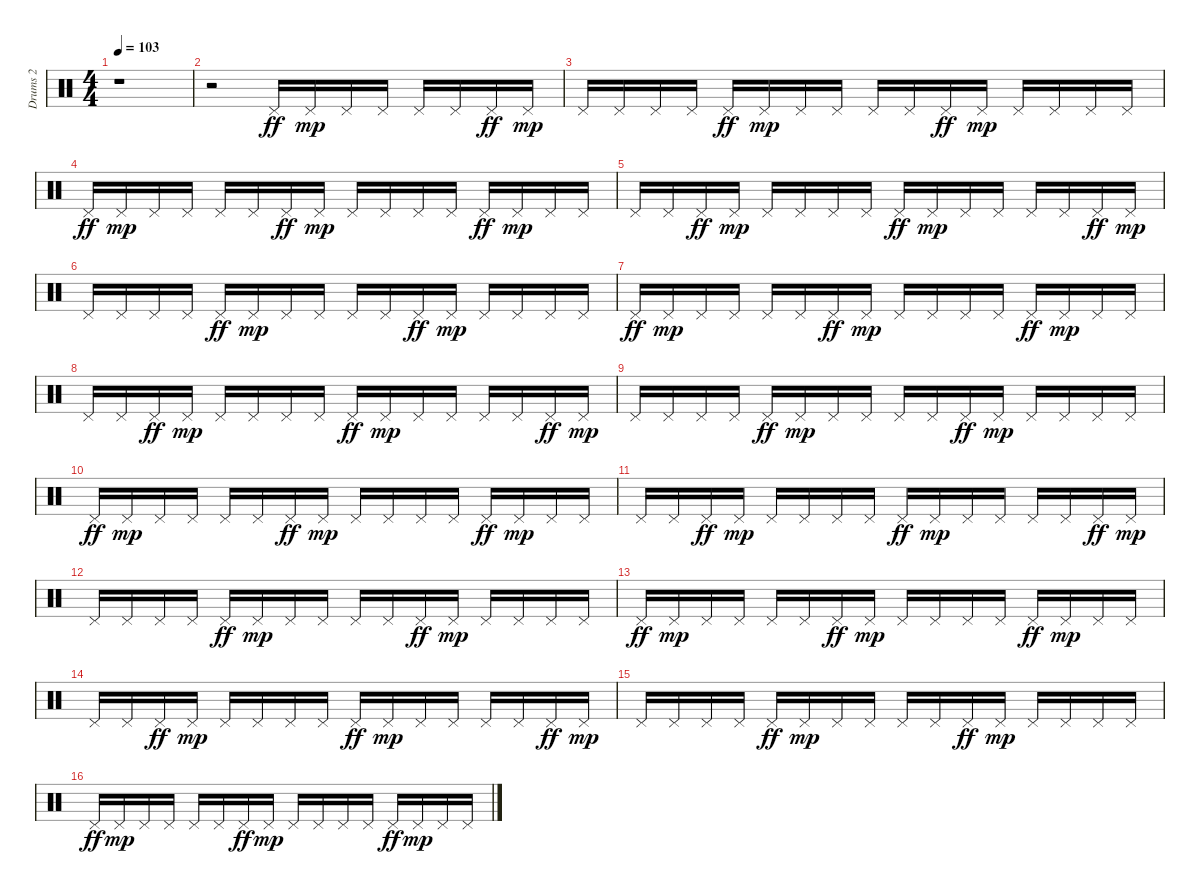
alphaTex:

\track ("Drums 2" "Drums 2") {instrument percussion}
\staff {score}
\articulation defaults
\ts (4 4)
\tempo 103
\clef neutral
\ks c
r.1{dy ff} |
r.2 "Pedal Hi-Hat (hit)".16 "Pedal Hi-Hat (hit)".16{dy mp} "Pedal Hi-Hat (hit)".16 "Pedal Hi-Hat (hit)".16 "Pedal Hi-Hat (hit)".16 "Pedal Hi-Hat (hit)".16 "Pedal Hi-Hat (hit)".16{dy ff} "Pedal Hi-Hat (hit)".16{dy mp} |
"Pedal Hi-Hat (hit)".16 "Pedal Hi-Hat (hit)".16 "Pedal Hi-Hat (hit)".16 "Pedal Hi-Hat (hit)".16 "Pedal Hi-Hat (hit)".16{dy ff} "Pedal Hi-Hat (hit)".16{dy mp} "Pedal Hi-Hat (hit)".16 "Pedal Hi-Hat (hit)".16 "Pedal Hi-Hat (hit)".16 "Pedal Hi-Hat (hit)".16 "Pedal Hi-Hat (hit)".16{dy ff} "Pedal Hi-Hat (hit)".16{dy mp} "Pedal Hi-Hat (hit)".16 "Pedal Hi-Hat (hit)".16 "Pedal Hi-Hat (hit)".16 "Pedal Hi-Hat (hit)".16 |
"Pedal Hi-Hat (hit)".16{dy ff} "Pedal Hi-Hat (hit)".16{dy mp} "Pedal Hi-Hat (hit)".16 "Pedal Hi-Hat (hit)".16 "Pedal Hi-Hat (hit)".16 "Pedal Hi-Hat (hit)".16 "Pedal Hi-Hat (hit)".16{dy ff} "Pedal Hi-Hat (hit)".16{dy mp} "Pedal Hi-Hat (hit)".16 "Pedal Hi-Hat (hit)".16 "Pedal Hi-Hat (hit)".16 "Pedal Hi-Hat (hit)".16 "Pedal Hi-Hat (hit)".16{dy ff} "Pedal Hi-Hat (hit)".16{dy mp} "Pedal Hi-Hat (hit)".16 "Pedal Hi-Hat (hit)".16 |
"Pedal Hi-Hat (hit)".16 "Pedal Hi-Hat (hit)".16 "Pedal Hi-Hat (hit)".16{dy ff} "Pedal Hi-Hat (hit)".16{dy mp} "Pedal Hi-Hat (hit)".16 "Pedal Hi-Hat (hit)".16 "Pedal Hi-Hat (hit)".16 "Pedal Hi-Hat (hit)".16 "Pedal Hi-Hat (hit)".16{dy ff} "Pedal Hi-Hat (hit)".16{dy mp} "Pedal Hi-Hat (hit)".16 "Pedal Hi-Hat (hit)".16 "Pedal Hi-Hat (hit)".16 "Pedal Hi-Hat (hit)".16 "Pedal Hi-Hat (hit)".16{dy ff} "Pedal Hi-Hat (hit)".16{dy mp} |
"Pedal Hi-Hat (hit)".16 "Pedal Hi-Hat (hit)".16 "Pedal Hi-Hat (hit)".16 "Pedal Hi-Hat (hit)".16 "Pedal Hi-Hat (hit)".16{dy ff} "Pedal Hi-Hat (hit)".16{dy mp} "Pedal Hi-Hat (hit)".16 "Pedal Hi-Hat (hit)".16 "Pedal Hi-Hat (hit)".16 "Pedal Hi-Hat (hit)".16 "Pedal Hi-Hat (hit)".16{dy ff} "Pedal Hi-Hat (hit)".16{dy mp} "Pedal Hi-Hat (hit)".16 "Pedal Hi-Hat (hit)".16 "Pedal Hi-Hat (hit)".16 "Pedal Hi-Hat (hit)".16 |
"Pedal Hi-Hat (hit)".16{dy ff} "Pedal Hi-Hat (hit)".16{dy mp} "Pedal Hi-Hat (hit)".16 "Pedal Hi-Hat (hit)".16 "Pedal Hi-Hat (hit)".16 "Pedal Hi-Hat (hit)".16 "Pedal Hi-Hat (hit)".16{dy ff} "Pedal Hi-Hat (hit)".16{dy mp} "Pedal Hi-Hat (hit)".16 "Pedal Hi-Hat (hit)".16 "Pedal Hi-Hat (hit)".16 "Pedal Hi-Hat (hit)".16 "Pedal Hi-Hat (hit)".16{dy ff} "Pedal Hi-Hat (hit)".16{dy mp} "Pedal Hi-Hat (hit)".16 "Pedal Hi-Hat (hit)".16 |
"Pedal Hi-Hat (hit)".16 "Pedal Hi-Hat (hit)".16 "Pedal Hi-Hat (hit)".16{dy ff} "Pedal Hi-Hat (hit)".16{dy mp} "Pedal Hi-Hat (hit)".16 "Pedal Hi-Hat (hit)".16 "Pedal Hi-Hat (hit)".16 "Pedal Hi-Hat (hit)".16 "Pedal Hi-Hat (hit)".16{dy ff} "Pedal Hi-Hat (hit)".16{dy mp} "Pedal Hi-Hat (hit)".16 "Pedal Hi-Hat (hit)".16 "Pedal Hi-Hat (hit)".16 "Pedal Hi-Hat (hit)".16 "Pedal Hi-Hat (hit)".16{dy ff} "Pedal Hi-Hat (hit)".16{dy mp} |
"Pedal Hi-Hat (hit)".16 "Pedal Hi-Hat (hit)".16 "Pedal Hi-Hat (hit)".16 "Pedal Hi-Hat (hit)".16 "Pedal Hi-Hat (hit)".16{dy ff} "Pedal Hi-Hat (hit)".16{dy mp} "Pedal Hi-Hat (hit)".16 "Pedal Hi-Hat (hit)".16 "Pedal Hi-Hat (hit)".16 "Pedal Hi-Hat (hit)".16 "Pedal Hi-Hat (hit)".16{dy ff} "Pedal Hi-Hat (hit)".16{dy mp} "Pedal Hi-Hat (hit)".16 "Pedal Hi-Hat (hit)".16 "Pedal Hi-Hat (hit)".16 "Pedal Hi-Hat (hit)".16 |
"Pedal Hi-Hat (hit)".16{dy ff} "Pedal Hi-Hat (hit)".16{dy mp} "Pedal Hi-Hat (hit)".16 "Pedal Hi-Hat (hit)".16 "Pedal Hi-Hat (hit)".16 "Pedal Hi-Hat (hit)".16 "Pedal Hi-Hat (hit)".16{dy ff} "Pedal Hi-Hat (hit)".16{dy mp} "Pedal Hi-Hat (hit)".16 "Pedal Hi-Hat (hit)".16 "Pedal Hi-Hat (hit)".16 "Pedal Hi-Hat (hit)".16 "Pedal Hi-Hat (hit)".16{dy ff} "Pedal Hi-Hat (hit)".16{dy mp} "Pedal Hi-Hat (hit)".16 "Pedal Hi-Hat (hit)".16 |
"Pedal Hi-Hat (hit)".16 "Pedal Hi-Hat (hit)".16 "Pedal Hi-Hat (hit)".16{dy ff} "Pedal Hi-Hat (hit)".16{dy mp} "Pedal Hi-Hat (hit)".16 "Pedal Hi-Hat (hit)".16 "Pedal Hi-Hat (hit)".16 "Pedal Hi-Hat (hit)".16 "Pedal Hi-Hat (hit)".16{dy ff} "Pedal Hi-Hat (hit)".16{dy mp} "Pedal Hi-Hat (hit)".16 "Pedal Hi-Hat (hit)".16 "Pedal Hi-Hat (hit)".16 "Pedal Hi-Hat (hit)".16 "Pedal Hi-Hat (hit)".16{dy ff} "Pedal Hi-Hat (hit)".16{dy mp} |
"Pedal Hi-Hat (hit)".16 "Pedal Hi-Hat (hit)".16 "Pedal Hi-Hat (hit)".16 "Pedal Hi-Hat (hit)".16 "Pedal Hi-Hat (hit)".16{dy ff} "Pedal Hi-Hat (hit)".16{dy mp} "Pedal Hi-Hat (hit)".16 "Pedal Hi-Hat (hit)".16 "Pedal Hi-Hat (hit)".16 "Pedal Hi-Hat (hit)".16 "Pedal Hi-Hat (hit)".16{dy ff} "Pedal Hi-Hat (hit)".16{dy mp} "Pedal Hi-Hat (hit)".16 "Pedal Hi-Hat (hit)".16 "Pedal Hi-Hat (hit)".16 "Pedal Hi-Hat (hit)".16 |
"Pedal Hi-Hat (hit)".16{dy ff} "Pedal Hi-Hat (hit)".16{dy mp} "Pedal Hi-Hat (hit)".16 "Pedal Hi-Hat (hit)".16 "Pedal Hi-Hat (hit)".16 "Pedal Hi-Hat (hit)".16 "Pedal Hi-Hat (hit)".16{dy ff} "Pedal Hi-Hat (hit)".16{dy mp} "Pedal Hi-Hat (hit)".16 "Pedal Hi-Hat (hit)".16 "Pedal Hi-Hat (hit)".16 "Pedal Hi-Hat (hit)".16 "Pedal Hi-Hat (hit)".16{dy ff} "Pedal Hi-Hat (hit)".16{dy mp} "Pedal Hi-Hat (hit)".16 "Pedal Hi-Hat (hit)".16 |
"Pedal Hi-Hat (hit)".16 "Pedal Hi-Hat (hit)".16 "Pedal Hi-Hat (hit)".16{dy ff} "Pedal Hi-Hat (hit)".16{dy mp} "Pedal Hi-Hat (hit)".16 "Pedal Hi-Hat (hit)".16 "Pedal Hi-Hat (hit)".16 "Pedal Hi-Hat (hit)".16 "Pedal Hi-Hat (hit)".16{dy ff} "Pedal Hi-Hat (hit)".16{dy mp} "Pedal Hi-Hat (hit)".16 "Pedal Hi-Hat (hit)".16 "Pedal Hi-Hat (hit)".16 "Pedal Hi-Hat (hit)".16 "Pedal Hi-Hat (hit)".16{dy ff} "Pedal Hi-Hat (hit)".16{dy mp} |
"Pedal Hi-Hat (hit)".16 "Pedal Hi-Hat (hit)".16 "Pedal Hi-Hat (hit)".16 "Pedal Hi-Hat (hit)".16 "Pedal Hi-Hat (hit)".16{dy ff} "Pedal Hi-Hat (hit)".16{dy mp} "Pedal Hi-Hat (hit)".16 "Pedal Hi-Hat (hit)".16 "Pedal Hi-Hat (hit)".16 "Pedal Hi-Hat (hit)".16 "Pedal Hi-Hat (hit)".16{dy ff} "Pedal Hi-Hat (hit)".16{dy mp} "Pedal Hi-Hat (hit)".16 "Pedal Hi-Hat (hit)".16 "Pedal Hi-Hat (hit)".16 "Pedal Hi-Hat (hit)".16 |
"Pedal Hi-Hat (hit)".16{dy ff} "Pedal Hi-Hat (hit)".16{dy mp} "Pedal Hi-Hat (hit)".16 "Pedal Hi-Hat (hit)".16 "Pedal Hi-Hat (hit)".16 "Pedal Hi-Hat (hit)".16 "Pedal Hi-Hat (hit)".16{dy ff} "Pedal Hi-Hat (hit)".16{dy mp} "Pedal Hi-Hat (hit)".16 "Pedal Hi-Hat (hit)".16 "Pedal Hi-Hat (hit)".16 "Pedal Hi-Hat (hit)".16 "Pedal Hi-Hat (hit)".16{dy ff} "Pedal Hi-Hat (hit)".16{dy mp} "Pedal Hi-Hat (hit)".16 "Pedal Hi-Hat (hit)".16
